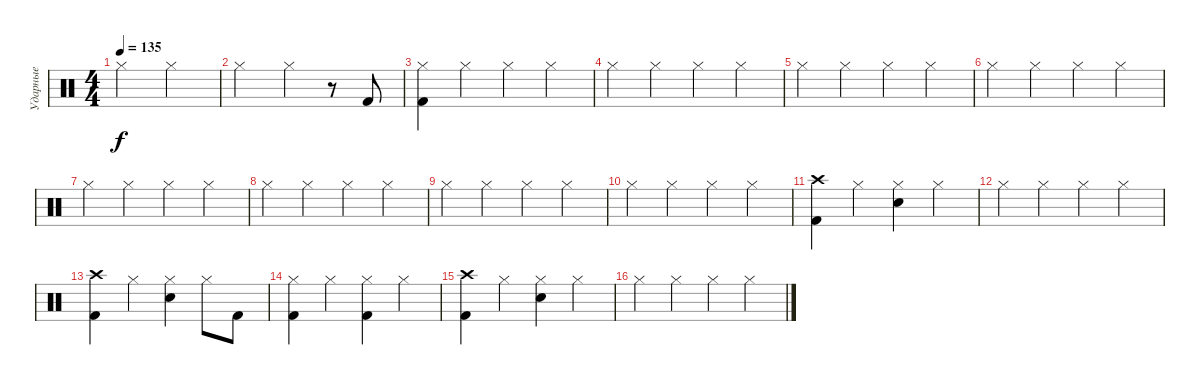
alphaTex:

\track ("Ударные" "Ударные") {instrument percussion}
\staff {score}
\articulation defaults
\ts (4 4)
\tempo 135
\clef neutral
\ks c "Hi-Hat (closed)".2{dy f} "Hi-Hat (closed)".2
|
"Hi-Hat (closed)".2 "Hi-Hat (closed)".4 r.8 "Kick (hit) 2".8 |
("Hi-Hat (closed)" "Kick (hit) 2").4 "Hi-Hat (closed)".4 "Hi-Hat (closed)".4 "Hi-Hat (closed)".4 |
"Hi-Hat (closed)".4 "Hi-Hat (closed)".4 "Hi-Hat (closed)".4 "Hi-Hat (closed)".4 |
"Hi-Hat (closed)".4 "Hi-Hat (closed)".4 "Hi-Hat (closed)".4 "Hi-Hat (closed)".4 |
"Hi-Hat (closed)".4 "Hi-Hat (closed)".4 "Hi-Hat (closed)".4 "Hi-Hat (closed)".4 |
"Hi-Hat (closed)".4 "Hi-Hat (closed)".4 "Hi-Hat (closed)".4 "Hi-Hat (closed)".4 |
"Hi-Hat (closed)".4 "Hi-Hat (closed)".4 "Hi-Hat (closed)".4 "Hi-Hat (closed)".4 |
"Hi-Hat (closed)".4 "Hi-Hat (closed)".4 "Hi-Hat (closed)".4 "Hi-Hat (closed)".4 |
"Hi-Hat (closed)".4 "Hi-Hat (closed)".4 "Hi-Hat (closed)".4 "Hi-Hat (closed)".4 |
("Kick (hit) 2" "Crash high (hit)").4 "Hi-Hat (closed)".4 ("Hi-Hat (closed)" "Electric Snare (hit)").4 "Hi-Hat (closed)".4 |
"Hi-Hat (closed)".4 "Hi-Hat (closed)".4 "Hi-Hat (closed)".4 "Hi-Hat (closed)".4 |
("Kick (hit) 2" "Crash high (hit)").4 "Hi-Hat (closed)".4 ("Hi-Hat (closed)" "Electric Snare (hit)").4 "Hi-Hat (closed)".8 "Kick (hit) 2".8 |
("Hi-Hat (closed)" "Kick (hit) 2").4 "Hi-Hat (closed)".4 ("Hi-Hat (closed)" "Kick (hit) 2").4 "Hi-Hat (closed)".4 |
("Kick (hit) 2" "Crash high (hit)").4 "Hi-Hat (closed)".4 ("Hi-Hat (closed)" "Electric Snare (hit)").4 "Hi-Hat (closed)".4 |
"Hi-Hat (closed)".4 "Hi-Hat (closed)".4 "Hi-Hat (closed)".4 "Hi-Hat (closed)".4
